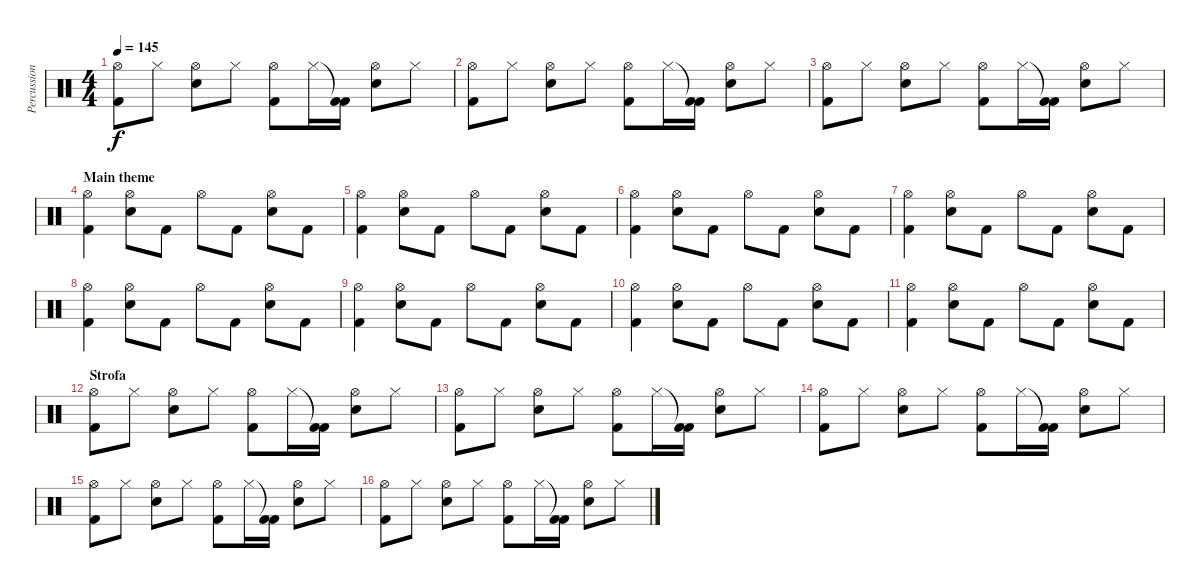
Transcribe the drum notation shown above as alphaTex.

\track ("Percussioni" "Percussion") {instrument percussion}
\staff {score}
\articulation defaults
\ts (4 4)
\tempo 145
\clef neutral
\ks c
("Hi-Hat (open)" "Kick (hit) 2").8{dy f} "Hi-Hat (closed)".8 ("Hi-Hat (open)" "Electric Snare (hit)").8 "Hi-Hat (closed)".8 ("Hi-Hat (open)" "Kick (hit) 2").8 "Hi-Hat (closed)".16 ("Kick (hit) 2"{t} "Kick (hit) 2").16 ("Hi-Hat (open)" "Electric Snare (hit)").8 "Hi-Hat (closed)".8 |
("Hi-Hat (open)" "Kick (hit) 2").8 "Hi-Hat (closed)".8 ("Hi-Hat (open)" "Electric Snare (hit)").8 "Hi-Hat (closed)".8 ("Hi-Hat (open)" "Kick (hit) 2").8 "Hi-Hat (closed)".16 ("Kick (hit) 2"{t} "Kick (hit) 2").16 ("Hi-Hat (open)" "Electric Snare (hit)").8 "Hi-Hat (closed)".8 |
("Hi-Hat (open)" "Kick (hit) 2").8 "Hi-Hat (closed)".8 ("Hi-Hat (open)" "Electric Snare (hit)").8 "Hi-Hat (closed)".8 ("Hi-Hat (open)" "Kick (hit) 2").8 "Hi-Hat (closed)".16 ("Kick (hit) 2"{t} "Kick (hit) 2").16 ("Hi-Hat (open)" "Electric Snare (hit)").8 "Hi-Hat (closed)".8 |
\section ("" "Main theme")
("Hi-Hat (open)" "Kick (hit) 2").4 ("Hi-Hat (open)" "Electric Snare (hit)").8 "Kick (hit) 2".8 "Hi-Hat (open)".8 "Kick (hit) 2".8 ("Hi-Hat (open)" "Electric Snare (hit)").8 "Kick (hit) 2".8 |
("Hi-Hat (open)" "Kick (hit) 2").4 ("Hi-Hat (open)" "Electric Snare (hit)").8 "Kick (hit) 2".8 "Hi-Hat (open)".8 "Kick (hit) 2".8 ("Hi-Hat (open)" "Electric Snare (hit)").8 "Kick (hit) 2".8 |
("Hi-Hat (open)" "Kick (hit) 2").4 ("Hi-Hat (open)" "Electric Snare (hit)").8 "Kick (hit) 2".8 "Hi-Hat (open)".8 "Kick (hit) 2".8 ("Hi-Hat (open)" "Electric Snare (hit)").8 "Kick (hit) 2".8 |
("Hi-Hat (open)" "Kick (hit) 2").4 ("Hi-Hat (open)" "Electric Snare (hit)").8 "Kick (hit) 2".8 "Hi-Hat (open)".8 "Kick (hit) 2".8 ("Hi-Hat (open)" "Electric Snare (hit)").8 "Kick (hit) 2".8 |
("Hi-Hat (open)" "Kick (hit) 2").4 ("Hi-Hat (open)" "Electric Snare (hit)").8 "Kick (hit) 2".8 "Hi-Hat (open)".8 "Kick (hit) 2".8 ("Hi-Hat (open)" "Electric Snare (hit)").8 "Kick (hit) 2".8 |
("Hi-Hat (open)" "Kick (hit) 2").4 ("Hi-Hat (open)" "Electric Snare (hit)").8 "Kick (hit) 2".8 "Hi-Hat (open)".8 "Kick (hit) 2".8 ("Hi-Hat (open)" "Electric Snare (hit)").8 "Kick (hit) 2".8 |
("Hi-Hat (open)" "Kick (hit) 2").4 ("Hi-Hat (open)" "Electric Snare (hit)").8 "Kick (hit) 2".8 "Hi-Hat (open)".8 "Kick (hit) 2".8 ("Hi-Hat (open)" "Electric Snare (hit)").8 "Kick (hit) 2".8 |
("Hi-Hat (open)" "Kick (hit) 2").4 ("Hi-Hat (open)" "Electric Snare (hit)").8 "Kick (hit) 2".8 "Hi-Hat (open)".8 "Kick (hit) 2".8 ("Hi-Hat (open)" "Electric Snare (hit)").8 "Kick (hit) 2".8 |
\section ("" "Strofa")
("Hi-Hat (open)" "Kick (hit) 2").8 "Hi-Hat (closed)".8 ("Hi-Hat (open)" "Electric Snare (hit)").8 "Hi-Hat (closed)".8 ("Hi-Hat (open)" "Kick (hit) 2").8 "Hi-Hat (closed)".16 ("Kick (hit) 2"{t} "Kick (hit) 2").16 ("Hi-Hat (open)" "Electric Snare (hit)").8 "Hi-Hat (closed)".8 |
("Hi-Hat (open)" "Kick (hit) 2").8 "Hi-Hat (closed)".8 ("Hi-Hat (open)" "Electric Snare (hit)").8 "Hi-Hat (closed)".8 ("Hi-Hat (open)" "Kick (hit) 2").8 "Hi-Hat (closed)".16 ("Kick (hit) 2"{t} "Kick (hit) 2").16 ("Hi-Hat (open)" "Electric Snare (hit)").8 "Hi-Hat (closed)".8 |
("Hi-Hat (open)" "Kick (hit) 2").8 "Hi-Hat (closed)".8 ("Hi-Hat (open)" "Electric Snare (hit)").8 "Hi-Hat (closed)".8 ("Hi-Hat (open)" "Kick (hit) 2").8 "Hi-Hat (closed)".16 ("Kick (hit) 2"{t} "Kick (hit) 2").16 ("Hi-Hat (open)" "Electric Snare (hit)").8 "Hi-Hat (closed)".8 |
("Hi-Hat (open)" "Kick (hit) 2").8 "Hi-Hat (closed)".8 ("Hi-Hat (open)" "Electric Snare (hit)").8 "Hi-Hat (closed)".8 ("Hi-Hat (open)" "Kick (hit) 2").8 "Hi-Hat (closed)".16 ("Kick (hit) 2"{t} "Kick (hit) 2").16 ("Hi-Hat (open)" "Electric Snare (hit)").8 "Hi-Hat (closed)".8 |
("Hi-Hat (open)" "Kick (hit) 2").8 "Hi-Hat (closed)".8 ("Hi-Hat (open)" "Electric Snare (hit)").8 "Hi-Hat (closed)".8 ("Hi-Hat (open)" "Kick (hit) 2").8 "Hi-Hat (closed)".16 ("Kick (hit) 2"{t} "Kick (hit) 2").16 ("Hi-Hat (open)" "Electric Snare (hit)").8 "Hi-Hat (closed)".8
